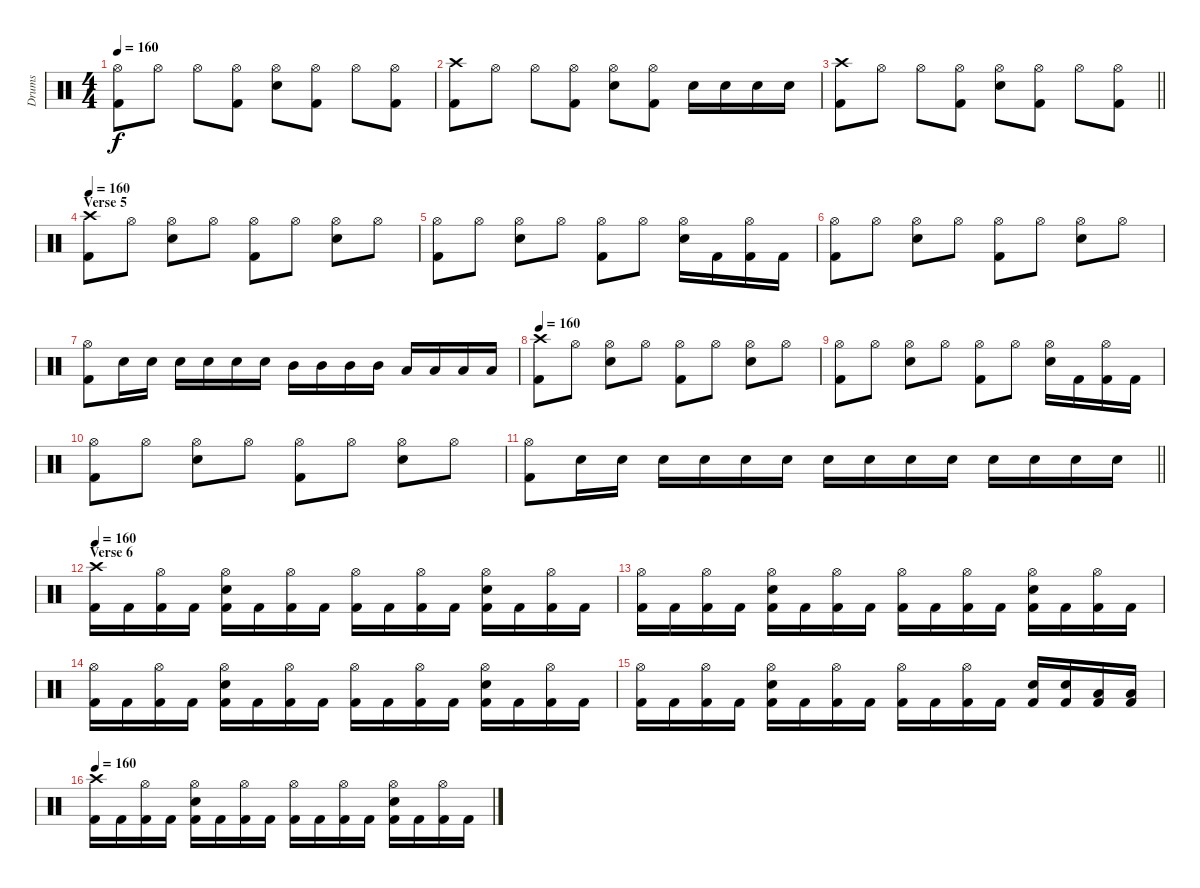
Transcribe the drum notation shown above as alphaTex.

\track ("Drums" "Drums") {instrument percussion}
\staff {score}
\articulation defaults
\ts (4 4)
\tempo 160
\clef neutral
\ks c
("Hi-Hat (open)" "Kick (hit) 2").8{dy f} "Hi-Hat (open)".8 "Hi-Hat (open)".8 ("Hi-Hat (open)" "Kick (hit) 2").8 ("Hi-Hat (open)" "Electric Snare (hit)").8 ("Hi-Hat (open)" "Kick (hit) 2").8 "Hi-Hat (open)".8 ("Hi-Hat (open)" "Kick (hit) 2").8 |
("Crash high (hit)" "Kick (hit) 2").8 "Hi-Hat (open)".8 "Hi-Hat (open)".8 ("Hi-Hat (open)" "Kick (hit) 2").8 ("Hi-Hat (open)" "Electric Snare (hit)").8 ("Hi-Hat (open)" "Kick (hit) 2").8 "Electric Snare (hit)".16 "Electric Snare (hit)".16 "Electric Snare (hit)".16 "Electric Snare (hit)".16 |
\barLineRight lightlight
("Crash high (hit)" "Kick (hit) 2").8 "Hi-Hat (open)".8 "Hi-Hat (open)".8 ("Hi-Hat (open)" "Kick (hit) 2").8 ("Hi-Hat (open)" "Electric Snare (hit)").8 ("Hi-Hat (open)" "Kick (hit) 2").8 "Hi-Hat (open)".8 ("Hi-Hat (open)" "Kick (hit) 2").8 |
\section ("" "Verse 5")
\tempo 160
("Crash high (hit)" "Kick (hit) 2").8 "Hi-Hat (open)".8 ("Hi-Hat (open)" "Electric Snare (hit)").8 "Hi-Hat (open)".8 ("Hi-Hat (open)" "Kick (hit) 2").8 "Hi-Hat (open)".8 ("Hi-Hat (open)" "Electric Snare (hit)").8 "Hi-Hat (open)".8 |
("Hi-Hat (open)" "Kick (hit) 2").8 "Hi-Hat (open)".8 ("Hi-Hat (open)" "Electric Snare (hit)").8 "Hi-Hat (open)".8 ("Hi-Hat (open)" "Kick (hit) 2").8 "Hi-Hat (open)".8 ("Hi-Hat (open)" "Electric Snare (hit)").16 "Kick (hit) 2".16 ("Hi-Hat (open)" "Kick (hit) 2").16 "Kick (hit) 2".16 |
("Hi-Hat (open)" "Kick (hit) 2").8 "Hi-Hat (open)".8 ("Hi-Hat (open)" "Electric Snare (hit)").8 "Hi-Hat (open)".8 ("Hi-Hat (open)" "Kick (hit) 2").8 "Hi-Hat (open)".8 ("Hi-Hat (open)" "Electric Snare (hit)").8 "Hi-Hat (open)".8 |
("Hi-Hat (open)" "Kick (hit) 2").8 "Electric Snare (hit)".16 "Electric Snare (hit)".16 "Electric Snare (hit)".16 "Electric Snare (hit)".16 "Electric Snare (hit)".16 "Electric Snare (hit)".16 "Mid Tom (hit)".16 "Mid Tom (hit)".16 "Mid Tom (hit)".16 "Mid Tom (hit)".16 "Low Tom (hit)".16 "Low Tom (hit)".16 "Low Tom (hit)".16 "Low Floor Tom (hit)".16 |
\tempo 160
("Crash high (hit)" "Kick (hit) 2").8 "Hi-Hat (open)".8 ("Hi-Hat (open)" "Electric Snare (hit)").8 "Hi-Hat (open)".8 ("Hi-Hat (open)" "Kick (hit) 2").8 "Hi-Hat (open)".8 ("Hi-Hat (open)" "Electric Snare (hit)").8 "Hi-Hat (open)".8 |
("Hi-Hat (open)" "Kick (hit) 2").8 "Hi-Hat (open)".8 ("Hi-Hat (open)" "Electric Snare (hit)").8 "Hi-Hat (open)".8 ("Hi-Hat (open)" "Kick (hit) 2").8 "Hi-Hat (open)".8 ("Hi-Hat (open)" "Electric Snare (hit)").16 "Kick (hit) 2".16 ("Hi-Hat (open)" "Kick (hit) 2").16 "Kick (hit) 2".16 |
("Hi-Hat (open)" "Kick (hit) 2").8 "Hi-Hat (open)".8 ("Hi-Hat (open)" "Electric Snare (hit)").8 "Hi-Hat (open)".8 ("Hi-Hat (open)" "Kick (hit) 2").8 "Hi-Hat (open)".8 ("Hi-Hat (open)" "Electric Snare (hit)").8 "Hi-Hat (open)".8 |
\barLineRight lightlight
("Hi-Hat (open)" "Kick (hit) 2").8 "Electric Snare (hit)".16 "Electric Snare (hit)".16 "Electric Snare (hit)".16 "Electric Snare (hit)".16 "Electric Snare (hit)".16 "Electric Snare (hit)".16 "Electric Snare (hit)".16 "Electric Snare (hit)".16 "Electric Snare (hit)".16 "Electric Snare (hit)".16 "Electric Snare (hit)".16 "Electric Snare (hit)".16 "Electric Snare (hit)".16 "Electric Snare (hit)".16 |
\section ("" "Verse 6")
\tempo 160
("Crash high (hit)" "Kick (hit) 2").16 "Kick (hit) 2".16 ("Hi-Hat (open)" "Kick (hit) 2").16 "Kick (hit) 2".16 ("Hi-Hat (open)" "Electric Snare (hit)" "Kick (hit) 2").16 "Kick (hit) 2".16 ("Hi-Hat (open)" "Kick (hit) 2").16 "Kick (hit) 2".16 ("Hi-Hat (open)" "Kick (hit) 2").16 "Kick (hit) 2".16 ("Hi-Hat (open)" "Kick (hit) 2").16 "Kick (hit) 2".16 ("Hi-Hat (open)" "Electric Snare (hit)" "Kick (hit) 2").16 "Kick (hit) 2".16 ("Hi-Hat (open)" "Kick (hit) 2").16 "Kick (hit) 2".16 |
("Hi-Hat (open)" "Kick (hit) 2").16 "Kick (hit) 2".16 ("Hi-Hat (open)" "Kick (hit) 2").16 "Kick (hit) 2".16 ("Hi-Hat (open)" "Electric Snare (hit)" "Kick (hit) 2").16 "Kick (hit) 2".16 ("Hi-Hat (open)" "Kick (hit) 2").16 "Kick (hit) 2".16 ("Hi-Hat (open)" "Kick (hit) 2").16 "Kick (hit) 2".16 ("Hi-Hat (open)" "Kick (hit) 2").16 "Kick (hit) 2".16 ("Hi-Hat (open)" "Electric Snare (hit)" "Kick (hit) 2").16 "Kick (hit) 2".16 ("Hi-Hat (open)" "Kick (hit) 2").16 "Kick (hit) 2".16 |
("Hi-Hat (open)" "Kick (hit) 2").16 "Kick (hit) 2".16 ("Hi-Hat (open)" "Kick (hit) 2").16 "Kick (hit) 2".16 ("Hi-Hat (open)" "Electric Snare (hit)" "Kick (hit) 2").16 "Kick (hit) 2".16 ("Hi-Hat (open)" "Kick (hit) 2").16 "Kick (hit) 2".16 ("Hi-Hat (open)" "Kick (hit) 2").16 "Kick (hit) 2".16 ("Hi-Hat (open)" "Kick (hit) 2").16 "Kick (hit) 2".16 ("Hi-Hat (open)" "Electric Snare (hit)" "Kick (hit) 2").16 "Kick (hit) 2".16 ("Hi-Hat (open)" "Kick (hit) 2").16 "Kick (hit) 2".16 |
("Hi-Hat (open)" "Kick (hit) 2").16 "Kick (hit) 2".16 ("Hi-Hat (open)" "Kick (hit) 2").16 "Kick (hit) 2".16 ("Hi-Hat (open)" "Electric Snare (hit)" "Kick (hit) 2").16 "Kick (hit) 2".16 ("Hi-Hat (open)" "Kick (hit) 2").16 "Kick (hit) 2".16 ("Hi-Hat (open)" "Kick (hit) 2").16 "Kick (hit) 2".16 ("Hi-Hat (open)" "Kick (hit) 2").16 "Kick (hit) 2".16 ("Electric Snare (hit)" "Kick (hit) 2").16 ("Electric Snare (hit)" "Kick (hit) 2").16 ("Low Tom (hit)" "Kick (hit) 2").16 ("Low Floor Tom (hit)" "Kick (hit) 2").16 |
\tempo 160
("Crash high (hit)" "Kick (hit) 2").16 "Kick (hit) 2".16 ("Hi-Hat (open)" "Kick (hit) 2").16 "Kick (hit) 2".16 ("Hi-Hat (open)" "Electric Snare (hit)" "Kick (hit) 2").16 "Kick (hit) 2".16 ("Hi-Hat (open)" "Kick (hit) 2").16 "Kick (hit) 2".16 ("Hi-Hat (open)" "Kick (hit) 2").16 "Kick (hit) 2".16 ("Hi-Hat (open)" "Kick (hit) 2").16 "Kick (hit) 2".16 ("Hi-Hat (open)" "Electric Snare (hit)" "Kick (hit) 2").16 "Kick (hit) 2".16 ("Hi-Hat (open)" "Kick (hit) 2").16 "Kick (hit) 2".16
